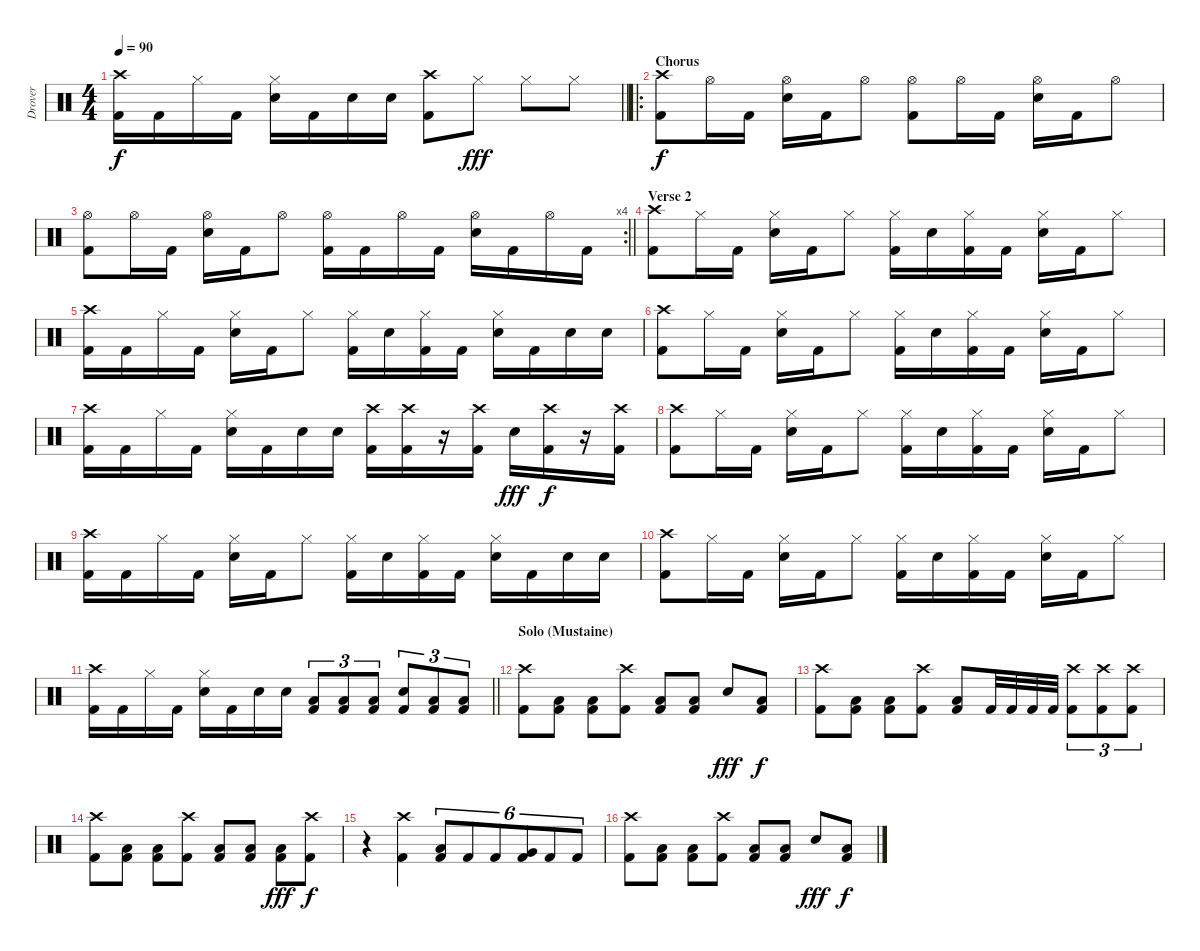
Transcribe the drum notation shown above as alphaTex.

\track ("Drover" "Drover") {instrument percussion}
\staff {score}
\articulation defaults
\ts (4 4)
\tempo 90
\clef neutral
\barLineRight lightlight
\ks c
("Crash high (hit)" "Kick (hit) 2").16{dy f} "Kick (hit) 2".16 "Hi-Hat (closed)".16 "Kick (hit) 2".16 ("Hi-Hat (closed)" "Snare (hit) 2").16 "Kick (hit) 2".16 "Snare (hit) 2".16 "Snare (hit) 2".16 ("Crash high (hit)" "Kick (hit) 2").8 "Hi-Hat (closed)".8{dy fff} "Hi-Hat (closed)".8 "Hi-Hat (closed)".8 |
\ro
\section ("" "Chorus")
("Crash high (hit)" "Kick (hit) 2").8{dy f} "Hi-Hat (open)".16 "Kick (hit) 2".16 ("Hi-Hat (open)" "Snare (hit) 2").16 "Kick (hit) 2".16 "Hi-Hat (open)".8 ("Hi-Hat (open)" "Kick (hit) 2").8 "Hi-Hat (open)".16 "Kick (hit) 2".16 ("Hi-Hat (open)" "Snare (hit) 2").16 "Kick (hit) 2".16 "Hi-Hat (open)".8 |
\rc 4
\barLineRight lightlight
("Hi-Hat (open)" "Kick (hit) 2").8 "Hi-Hat (open)".16 "Kick (hit) 2".16 ("Hi-Hat (open)" "Snare (hit) 2").16 "Kick (hit) 2".16 "Hi-Hat (open)".8 ("Hi-Hat (open)" "Kick (hit) 2").16 "Kick (hit) 2".16 "Hi-Hat (open)".16 "Kick (hit) 2".16 ("Hi-Hat (open)" "Snare (hit) 2").16 "Kick (hit) 2".16 "Hi-Hat (open)".16 "Kick (hit) 2".16 |
\section ("" "Verse 2")
("Crash high (hit)" "Kick (hit) 2").8 "Hi-Hat (closed)".16 "Kick (hit) 2".16 ("Hi-Hat (closed)" "Snare (hit) 2").16 "Kick (hit) 2".16 "Hi-Hat (closed)".8 ("Hi-Hat (closed)" "Kick (hit) 2").16 "Snare (hit) 2".16 ("Hi-Hat (closed)" "Kick (hit) 2").16 "Kick (hit) 2".16 ("Hi-Hat (closed)" "Snare (hit) 2").16 "Kick (hit) 2".16 "Hi-Hat (closed)".8 |
("Crash high (hit)" "Kick (hit) 2").16 "Kick (hit) 2".16 "Hi-Hat (closed)".16 "Kick (hit) 2".16 ("Hi-Hat (closed)" "Snare (hit) 2").16 "Kick (hit) 2".16 "Hi-Hat (closed)".8 ("Hi-Hat (closed)" "Kick (hit) 2").16 "Snare (hit) 2".16 ("Hi-Hat (closed)" "Kick (hit) 2").16 "Kick (hit) 2".16 ("Hi-Hat (closed)" "Snare (hit) 2").16 "Kick (hit) 2".16 "Snare (hit) 2".16 "Snare (hit) 2".16 |
("Crash high (hit)" "Kick (hit) 2").8 "Hi-Hat (closed)".16 "Kick (hit) 2".16 ("Hi-Hat (closed)" "Snare (hit) 2").16 "Kick (hit) 2".16 "Hi-Hat (closed)".8 ("Hi-Hat (closed)" "Kick (hit) 2").16 "Snare (hit) 2".16 ("Hi-Hat (closed)" "Kick (hit) 2").16 "Kick (hit) 2".16 ("Hi-Hat (closed)" "Snare (hit) 2").16 "Kick (hit) 2".16 "Hi-Hat (closed)".8 |
("Crash high (hit)" "Kick (hit) 2").16 "Kick (hit) 2".16 "Hi-Hat (closed)".16 "Kick (hit) 2".16 ("Hi-Hat (closed)" "Snare (hit) 2").16 "Kick (hit) 2".16 "Snare (hit) 2".16 "Snare (hit) 2".16 ("Crash high (hit)" "Kick (hit) 2").16 ("Crash high (hit)" "Kick (hit) 2").16 r.16 ("Crash high (hit)" "Kick (hit) 2").16 "Snare (hit) 2".16{dy fff} ("Crash high (hit)" "Kick (hit) 2").16{dy f} r.16 ("Crash high (hit)" "Kick (hit) 2").16 |
("Crash high (hit)" "Kick (hit) 2").8 "Hi-Hat (closed)".16 "Kick (hit) 2".16 ("Hi-Hat (closed)" "Snare (hit) 2").16 "Kick (hit) 2".16 "Hi-Hat (closed)".8 ("Hi-Hat (closed)" "Kick (hit) 2").16 "Snare (hit) 2".16 ("Hi-Hat (closed)" "Kick (hit) 2").16 "Kick (hit) 2".16 ("Hi-Hat (closed)" "Snare (hit) 2").16 "Kick (hit) 2".16 "Hi-Hat (closed)".8 |
("Crash high (hit)" "Kick (hit) 2").16 "Kick (hit) 2".16 "Hi-Hat (closed)".16 "Kick (hit) 2".16 ("Hi-Hat (closed)" "Snare (hit) 2").16 "Kick (hit) 2".16 "Hi-Hat (closed)".8 ("Hi-Hat (closed)" "Kick (hit) 2").16 "Snare (hit) 2".16 ("Hi-Hat (closed)" "Kick (hit) 2").16 "Kick (hit) 2".16 ("Hi-Hat (closed)" "Snare (hit) 2").16 "Kick (hit) 2".16 "Snare (hit) 2".16 "Snare (hit) 2".16 |
("Crash high (hit)" "Kick (hit) 2").8 "Hi-Hat (closed)".16 "Kick (hit) 2".16 ("Hi-Hat (closed)" "Snare (hit) 2").16 "Kick (hit) 2".16 "Hi-Hat (closed)".8 ("Hi-Hat (closed)" "Kick (hit) 2").16 "Snare (hit) 2".16 ("Hi-Hat (closed)" "Kick (hit) 2").16 "Kick (hit) 2".16 ("Hi-Hat (closed)" "Snare (hit) 2").16 "Kick (hit) 2".16 "Hi-Hat (closed)".8 |
\barLineRight lightlight
("Crash high (hit)" "Kick (hit) 2").16 "Kick (hit) 2".16 "Hi-Hat (closed)".16 "Kick (hit) 2".16 ("Hi-Hat (closed)" "Snare (hit) 2").16 "Kick (hit) 2".16 "Snare (hit) 2".16 "Snare (hit) 2".16 ("Low Tom (hit)" "Kick (hit) 2").8{tu (3 2)} ("Low Tom (hit)" "Kick (hit) 2").8{tu (3 2)} ("Low Tom (hit)" "Kick (hit) 2").8{tu (3 2)} ("Snare (hit) 2" "Kick (hit) 2").8{tu (3 2)} ("Low Tom (hit)" "Kick (hit) 2").8{tu (3 2)} ("Low Tom (hit)" "Kick (hit) 2").8{tu (3 2)} |
\section ("" "Solo (Mustaine)")
("Crash high (hit)" "Kick (hit) 2").8 ("Low Floor Tom (hit)" "Kick (hit) 2").8 ("Low Floor Tom (hit)" "Kick (hit) 2").8 ("Crash high (hit)" "Kick (hit) 2").8 ("Low Floor Tom (hit)" "Kick (hit) 2").8 ("Low Floor Tom (hit)" "Kick (hit) 2").8 "Snare (hit) 2".8{dy fff} ("Low Floor Tom (hit)" "Kick (hit) 2").8{dy f} |
("Crash high (hit)" "Kick (hit) 2").8 ("Low Floor Tom (hit)" "Kick (hit) 2").8 ("Low Floor Tom (hit)" "Kick (hit) 2").8 ("Crash high (hit)" "Kick (hit) 2").8 ("Low Floor Tom (hit)" "Kick (hit) 2").8 "Kick (hit) 2".32 "Kick (hit) 2".32 "Kick (hit) 2".32 "Kick (hit) 2".32 ("Crash high (hit)" "Kick (hit) 2").8{tu (3 2)} ("Crash high (hit)" "Kick (hit) 2").8{tu (3 2)} ("Crash high (hit)" "Kick (hit) 2").8{tu (3 2)} |
("Crash high (hit)" "Kick (hit) 2").8 ("Low Floor Tom (hit)" "Kick (hit) 2").8 ("Low Floor Tom (hit)" "Kick (hit) 2").8 ("Crash high (hit)" "Kick (hit) 2").8 ("Low Floor Tom (hit)" "Kick (hit) 2").8 ("Low Floor Tom (hit)" "Kick (hit) 2").8 ("Low Floor Tom (hit)" "Kick (hit) 2").8{dy fff} ("Crash high (hit)" "Kick (hit) 2").8{dy f} |
r.4 ("Crash high (hit)" "Kick (hit) 2").4 ("Low Tom (hit)" "Kick (hit) 2").8{tu (6 4)} "Kick (hit) 2".8{tu (6 4)} "Kick (hit) 2".8{tu (6 4)} ("Very Low Tom (hit)" "Kick (hit) 2").8{tu (6 4)} "Kick (hit) 2".8{tu (6 4)} "Kick (hit) 2".8{tu (6 4)} |
("Crash high (hit)" "Kick (hit) 2").8 ("Low Floor Tom (hit)" "Kick (hit) 2").8 ("Low Floor Tom (hit)" "Kick (hit) 2").8 ("Crash high (hit)" "Kick (hit) 2").8 ("Low Floor Tom (hit)" "Kick (hit) 2").8 ("Low Floor Tom (hit)" "Kick (hit) 2").8 "Snare (hit) 2".8{dy fff} ("Low Floor Tom (hit)" "Kick (hit) 2").8{dy f}
